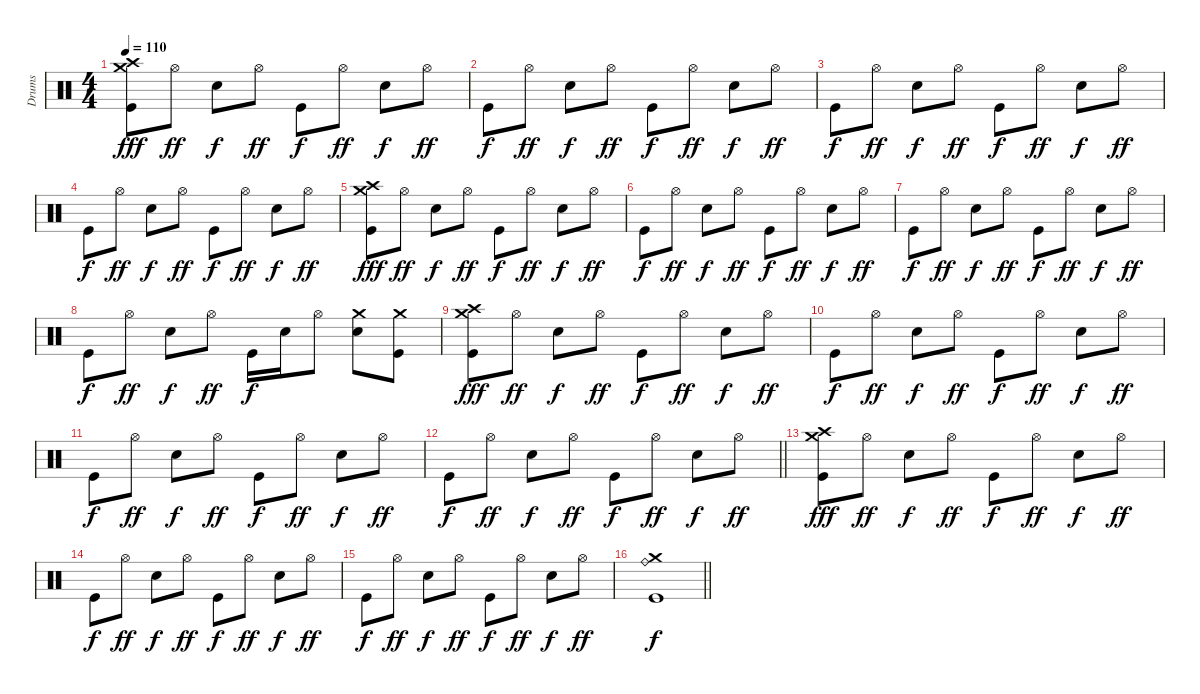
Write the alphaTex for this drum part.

\track ("Drums" "Drums") {instrument percussion}
\staff {score}
\articulation defaults
\ts (4 4)
\tempo 110
\clef neutral
\ks c
("Crash medium (hit)" "Crash high (hit)" "Kick (hit)").8{dy fff} "Hi-Hat (open)".8{dy ff} "Snare (hit) 2".8{dy f} "Hi-Hat (open)".8{dy ff} "Kick (hit)".8{dy f} "Hi-Hat (open)".8{dy ff} "Snare (hit) 2".8{dy f} "Hi-Hat (open)".8{dy ff} |
"Kick (hit)".8{dy f} "Hi-Hat (open)".8{dy ff} "Snare (hit) 2".8{dy f} "Hi-Hat (open)".8{dy ff} "Kick (hit)".8{dy f} "Hi-Hat (open)".8{dy ff} "Snare (hit) 2".8{dy f} "Hi-Hat (open)".8{dy ff} |
"Kick (hit)".8{dy f} "Hi-Hat (open)".8{dy ff} "Snare (hit) 2".8{dy f} "Hi-Hat (open)".8{dy ff} "Kick (hit)".8{dy f} "Hi-Hat (open)".8{dy ff} "Snare (hit) 2".8{dy f} "Hi-Hat (open)".8{dy ff} |
"Kick (hit)".8{dy f} "Hi-Hat (open)".8{dy ff} "Snare (hit) 2".8{dy f} "Hi-Hat (open)".8{dy ff} "Kick (hit)".8{dy f} "Hi-Hat (open)".8{dy ff} "Snare (hit) 2".8{dy f} "Hi-Hat (open)".8{dy ff} |
("Crash medium (hit)" "Crash high (hit)" "Kick (hit)").8{dy fff} "Hi-Hat (open)".8{dy ff} "Snare (hit) 2".8{dy f} "Hi-Hat (open)".8{dy ff} "Kick (hit)".8{dy f} "Hi-Hat (open)".8{dy ff} "Snare (hit) 2".8{dy f} "Hi-Hat (open)".8{dy ff} |
"Kick (hit)".8{dy f} "Hi-Hat (open)".8{dy ff} "Snare (hit) 2".8{dy f} "Hi-Hat (open)".8{dy ff} "Kick (hit)".8{dy f} "Hi-Hat (open)".8{dy ff} "Snare (hit) 2".8{dy f} "Hi-Hat (open)".8{dy ff} |
"Kick (hit)".8{dy f} "Hi-Hat (open)".8{dy ff} "Snare (hit) 2".8{dy f} "Hi-Hat (open)".8{dy ff} "Kick (hit)".8{dy f} "Hi-Hat (open)".8{dy ff} "Snare (hit) 2".8{dy f} "Hi-Hat (open)".8{dy ff} |
"Kick (hit)".8{dy f} "Hi-Hat (open)".8{dy ff} "Snare (hit) 2".8{dy f} "Hi-Hat (open)".8{dy ff} "Kick (hit)".16{dy f} "Snare (hit) 2".16 "Hi-Hat (open)".8 ("Crash medium (hit)" "Snare (hit) 2").8 ("Crash medium (hit)" "Kick (hit)").8 |
("Crash medium (hit)" "Crash high (hit)" "Kick (hit)").8{dy fff} "Hi-Hat (open)".8{dy ff} "Snare (hit) 2".8{dy f} "Hi-Hat (open)".8{dy ff} "Kick (hit)".8{dy f} "Hi-Hat (open)".8{dy ff} "Snare (hit) 2".8{dy f} "Hi-Hat (open)".8{dy ff} |
"Kick (hit)".8{dy f} "Hi-Hat (open)".8{dy ff} "Snare (hit) 2".8{dy f} "Hi-Hat (open)".8{dy ff} "Kick (hit)".8{dy f} "Hi-Hat (open)".8{dy ff} "Snare (hit) 2".8{dy f} "Hi-Hat (open)".8{dy ff} |
"Kick (hit)".8{dy f} "Hi-Hat (open)".8{dy ff} "Snare (hit) 2".8{dy f} "Hi-Hat (open)".8{dy ff} "Kick (hit)".8{dy f} "Hi-Hat (open)".8{dy ff} "Snare (hit) 2".8{dy f} "Hi-Hat (open)".8{dy ff} |
\barLineRight lightlight "Kick (hit)".8{dy f} "Hi-Hat (open)".8{dy ff} "Snare (hit) 2".8{dy f} "Hi-Hat (open)".8{dy ff} "Kick (hit)".8{dy f} "Hi-Hat (open)".8{dy ff} "Snare (hit) 2".8{dy f} "Hi-Hat (open)".8{dy ff}
|
("Crash medium (hit)" "Crash high (hit)" "Kick (hit)").8{dy fff} "Hi-Hat (open)".8{dy ff} "Snare (hit) 2".8{dy f} "Hi-Hat (open)".8{dy ff} "Kick (hit)".8{dy f} "Hi-Hat (open)".8{dy ff} "Snare (hit) 2".8{dy f} "Hi-Hat (open)".8{dy ff} |
"Kick (hit)".8{dy f} "Hi-Hat (open)".8{dy ff} "Snare (hit) 2".8{dy f} "Hi-Hat (open)".8{dy ff} "Kick (hit)".8{dy f} "Hi-Hat (open)".8{dy ff} "Snare (hit) 2".8{dy f} "Hi-Hat (open)".8{dy ff} |
"Kick (hit)".8{dy f} "Hi-Hat (open)".8{dy ff} "Snare (hit) 2".8{dy f} "Hi-Hat (open)".8{dy ff} "Kick (hit)".8{dy f} "Hi-Hat (open)".8{dy ff} "Snare (hit) 2".8{dy f} "Hi-Hat (open)".8{dy ff} |
\barLineRight lightlight
("Ride (bell)" "Crash medium (hit)" "Kick (hit)").1{dy f}
